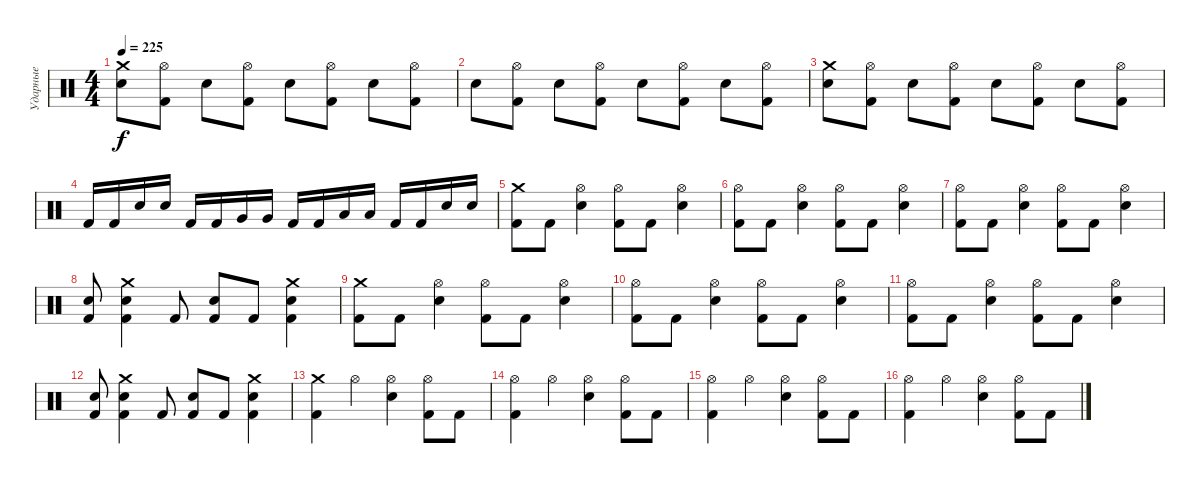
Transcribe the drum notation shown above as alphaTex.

\track ("Ударные" "Ударные") {instrument percussion}
\staff {score}
\articulation defaults
\ts (4 4)
\tempo 225
\clef neutral
\ks c
("Crash medium (hit)" "Snare (hit) 2").8{dy f} ("Hi-Hat (open)" "Kick (hit) 2").8 "Snare (hit) 2".8 ("Hi-Hat (open)" "Kick (hit) 2").8 "Snare (hit) 2".8 ("Hi-Hat (open)" "Kick (hit) 2").8 "Snare (hit) 2".8 ("Hi-Hat (open)" "Kick (hit) 2").8 |
"Snare (hit) 2".8 ("Hi-Hat (open)" "Kick (hit) 2").8 "Snare (hit) 2".8 ("Hi-Hat (open)" "Kick (hit) 2").8 "Snare (hit) 2".8 ("Hi-Hat (open)" "Kick (hit) 2").8 "Snare (hit) 2".8 ("Hi-Hat (open)" "Kick (hit) 2").8 |
("Crash medium (hit)" "Snare (hit) 2").8 ("Hi-Hat (open)" "Kick (hit) 2").8 "Snare (hit) 2".8 ("Hi-Hat (open)" "Kick (hit) 2").8 "Snare (hit) 2".8 ("Hi-Hat (open)" "Kick (hit) 2").8 "Snare (hit) 2".8 ("Hi-Hat (open)" "Kick (hit) 2").8 |
"Kick (hit) 2".16 "Kick (hit) 2".16 "Snare (hit) 2".16 "Snare (hit) 2".16 "Kick (hit) 2".16 "Kick (hit) 2".16 "Very Low Tom (hit)".16 "Very Low Tom (hit)".16 "Kick (hit) 2".16 "Kick (hit) 2".16 "Low Tom (hit)".16 "Low Tom (hit)".16 "Kick (hit) 2".16 "Kick (hit) 2".16 "Snare (hit) 2".16 "Snare (hit) 2".16 |
("Crash medium (hit)" "Kick (hit) 2").8 "Kick (hit) 2".8 ("Hi-Hat (open)" "Snare (hit) 2").4 ("Hi-Hat (open)" "Kick (hit) 2").8 "Kick (hit) 2".8 ("Hi-Hat (open)" "Snare (hit) 2").4 |
("Hi-Hat (open)" "Kick (hit) 2").8 "Kick (hit) 2".8 ("Hi-Hat (open)" "Snare (hit) 2").4 ("Hi-Hat (open)" "Kick (hit) 2").8 "Kick (hit) 2".8 ("Hi-Hat (open)" "Snare (hit) 2").4 |
("Hi-Hat (open)" "Kick (hit) 2").8 "Kick (hit) 2".8 ("Hi-Hat (open)" "Snare (hit) 2").4 ("Hi-Hat (open)" "Kick (hit) 2").8 "Kick (hit) 2".8 ("Hi-Hat (open)" "Snare (hit) 2").4 |
("Snare (hit) 2" "Kick (hit) 2").8 ("Crash medium (hit)" "Snare (hit) 2" "Kick (hit) 2").4 "Kick (hit) 2".8 ("Snare (hit) 2" "Kick (hit) 2").8 "Kick (hit) 2".8 ("Crash medium (hit)" "Snare (hit) 2" "Kick (hit) 2").4 |
("Crash medium (hit)" "Kick (hit) 2").8 "Kick (hit) 2".8 ("Hi-Hat (open)" "Snare (hit) 2").4 ("Hi-Hat (open)" "Kick (hit) 2").8 "Kick (hit) 2".8 ("Hi-Hat (open)" "Snare (hit) 2").4 |
("Hi-Hat (open)" "Kick (hit) 2").8 "Kick (hit) 2".8 ("Hi-Hat (open)" "Snare (hit) 2").4 ("Hi-Hat (open)" "Kick (hit) 2").8 "Kick (hit) 2".8 ("Hi-Hat (open)" "Snare (hit) 2").4 |
("Hi-Hat (open)" "Kick (hit) 2").8 "Kick (hit) 2".8 ("Hi-Hat (open)" "Snare (hit) 2").4 ("Hi-Hat (open)" "Kick (hit) 2").8 "Kick (hit) 2".8 ("Hi-Hat (open)" "Snare (hit) 2").4 |
("Snare (hit) 2" "Kick (hit) 2").8 ("Crash medium (hit)" "Snare (hit) 2" "Kick (hit) 2").4 "Kick (hit) 2".8 ("Snare (hit) 2" "Kick (hit) 2").8 "Kick (hit) 2".8 ("Crash medium (hit)" "Snare (hit) 2" "Kick (hit) 2").4 |
("Crash medium (hit)" "Kick (hit) 2").4 "Hi-Hat (open)".4 ("Hi-Hat (open)" "Snare (hit) 2").4 ("Hi-Hat (open)" "Kick (hit) 2").8 "Kick (hit) 2".8 |
("Hi-Hat (open)" "Kick (hit) 2").4 "Hi-Hat (open)".4 ("Hi-Hat (open)" "Snare (hit) 2").4 ("Hi-Hat (open)" "Kick (hit) 2").8 "Kick (hit) 2".8 |
("Hi-Hat (open)" "Kick (hit) 2").4 "Hi-Hat (open)".4 ("Hi-Hat (open)" "Snare (hit) 2").4 ("Hi-Hat (open)" "Kick (hit) 2").8 "Kick (hit) 2".8 |
("Hi-Hat (open)" "Kick (hit) 2").4 "Hi-Hat (open)".4 ("Hi-Hat (open)" "Snare (hit) 2").4 ("Hi-Hat (open)" "Kick (hit) 2").8 "Kick (hit) 2".8
